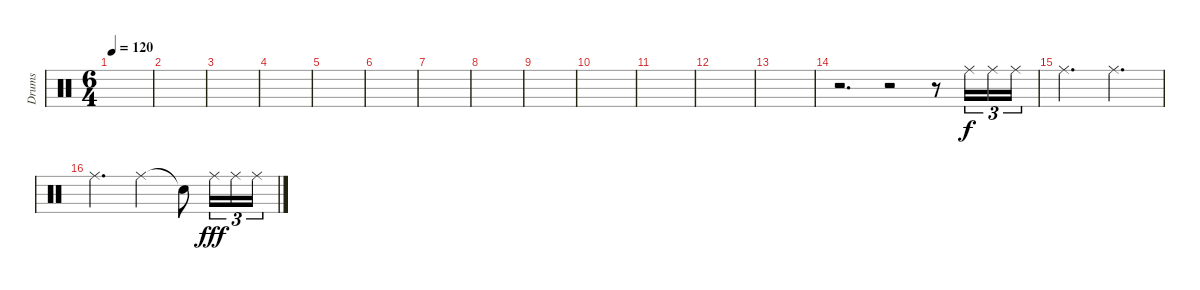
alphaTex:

\track ("Drums" "Drums") {instrument percussion}
\staff {score}
\articulation defaults
\ts (6 4)
\tempo 120
\clef neutral
\ks c
|
|
|
|
|
|
|
|
|
|
|
|
|
r.2{d} r.2 r.8 "Ride (middle)".16{tu (3 2)} "Ride (middle)".16{tu (3 2)} "Ride (middle)".16{tu (3 2)} |
"Ride (middle)".2{d} "Ride (middle)".2{d} |
"Ride (middle)".2{d} "Ride (middle)".2 "Snare (hit)"{t}.8{dy f} "Ride (middle)".16{tu (3 2) dy fff} "Ride (middle)".16{tu (3 2)} "Ride (middle)".16{tu (3 2)}
